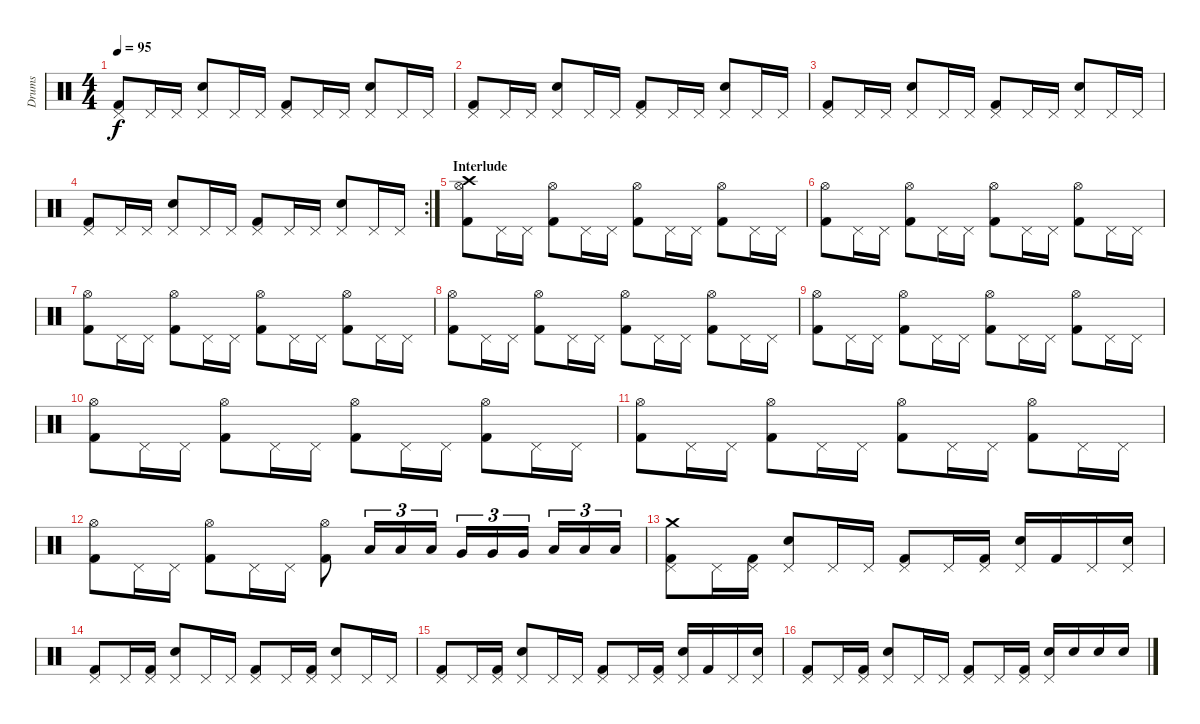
\track ("Drums" "Drums") {instrument percussion}
\staff {score}
\articulation defaults
\ts (4 4)
\tempo 95
\clef neutral
\ks c
("Pedal Hi-Hat (hit)" "Kick (hit) 2").8{dy f} "Pedal Hi-Hat (hit)".16 "Pedal Hi-Hat (hit)".16 ("Pedal Hi-Hat (hit)" "Snare (hit) 2").8 "Pedal Hi-Hat (hit)".16 "Pedal Hi-Hat (hit)".16 ("Pedal Hi-Hat (hit)" "Kick (hit) 2").8 "Pedal Hi-Hat (hit)".16 "Pedal Hi-Hat (hit)".16 ("Pedal Hi-Hat (hit)" "Snare (hit) 2").8 "Pedal Hi-Hat (hit)".16 "Pedal Hi-Hat (hit)".16 |
("Pedal Hi-Hat (hit)" "Kick (hit) 2").8 "Pedal Hi-Hat (hit)".16 "Pedal Hi-Hat (hit)".16 ("Pedal Hi-Hat (hit)" "Snare (hit) 2").8 "Pedal Hi-Hat (hit)".16 "Pedal Hi-Hat (hit)".16 ("Pedal Hi-Hat (hit)" "Kick (hit) 2").8 "Pedal Hi-Hat (hit)".16 "Pedal Hi-Hat (hit)".16 ("Pedal Hi-Hat (hit)" "Snare (hit) 2").8 "Pedal Hi-Hat (hit)".16 "Pedal Hi-Hat (hit)".16 |
("Pedal Hi-Hat (hit)" "Kick (hit) 2").8 "Pedal Hi-Hat (hit)".16 "Pedal Hi-Hat (hit)".16 ("Pedal Hi-Hat (hit)" "Snare (hit) 2").8 "Pedal Hi-Hat (hit)".16 "Pedal Hi-Hat (hit)".16 ("Pedal Hi-Hat (hit)" "Kick (hit) 2").8 "Pedal Hi-Hat (hit)".16 "Pedal Hi-Hat (hit)".16 ("Pedal Hi-Hat (hit)" "Snare (hit) 2").8 "Pedal Hi-Hat (hit)".16 "Pedal Hi-Hat (hit)".16 |
\rc 2
("Pedal Hi-Hat (hit)" "Kick (hit) 2").8 "Pedal Hi-Hat (hit)".16 "Pedal Hi-Hat (hit)".16 ("Pedal Hi-Hat (hit)" "Snare (hit) 2").8 "Pedal Hi-Hat (hit)".16 "Pedal Hi-Hat (hit)".16 ("Pedal Hi-Hat (hit)" "Kick (hit) 2").8 "Pedal Hi-Hat (hit)".16 "Pedal Hi-Hat (hit)".16 ("Pedal Hi-Hat (hit)" "Snare (hit) 2").8 "Pedal Hi-Hat (hit)".16 "Pedal Hi-Hat (hit)".16 |
\section ("" "Interlude")
("Crash high (hit)" "Hi-Hat (open)" "Kick (hit) 2").8 "Pedal Hi-Hat (hit)".16 "Pedal Hi-Hat (hit)".16 ("Hi-Hat (open)" "Kick (hit) 2").8 "Pedal Hi-Hat (hit)".16 "Pedal Hi-Hat (hit)".16 ("Hi-Hat (open)" "Kick (hit) 2").8 "Pedal Hi-Hat (hit)".16 "Pedal Hi-Hat (hit)".16 ("Hi-Hat (open)" "Kick (hit) 2").8 "Pedal Hi-Hat (hit)".16 "Pedal Hi-Hat (hit)".16 |
("Hi-Hat (open)" "Kick (hit) 2").8 "Pedal Hi-Hat (hit)".16 "Pedal Hi-Hat (hit)".16 ("Hi-Hat (open)" "Kick (hit) 2").8 "Pedal Hi-Hat (hit)".16 "Pedal Hi-Hat (hit)".16 ("Hi-Hat (open)" "Kick (hit) 2").8 "Pedal Hi-Hat (hit)".16 "Pedal Hi-Hat (hit)".16 ("Hi-Hat (open)" "Kick (hit) 2").8 "Pedal Hi-Hat (hit)".16 "Pedal Hi-Hat (hit)".16 |
("Hi-Hat (open)" "Kick (hit) 2").8 "Pedal Hi-Hat (hit)".16 "Pedal Hi-Hat (hit)".16 ("Hi-Hat (open)" "Kick (hit) 2").8 "Pedal Hi-Hat (hit)".16 "Pedal Hi-Hat (hit)".16 ("Hi-Hat (open)" "Kick (hit) 2").8 "Pedal Hi-Hat (hit)".16 "Pedal Hi-Hat (hit)".16 ("Hi-Hat (open)" "Kick (hit) 2").8 "Pedal Hi-Hat (hit)".16 "Pedal Hi-Hat (hit)".16 |
("Hi-Hat (open)" "Kick (hit) 2").8 "Pedal Hi-Hat (hit)".16 "Pedal Hi-Hat (hit)".16 ("Hi-Hat (open)" "Kick (hit) 2").8 "Pedal Hi-Hat (hit)".16 "Pedal Hi-Hat (hit)".16 ("Hi-Hat (open)" "Kick (hit) 2").8 "Pedal Hi-Hat (hit)".16 "Pedal Hi-Hat (hit)".16 ("Hi-Hat (open)" "Kick (hit) 2").8 "Pedal Hi-Hat (hit)".16 "Pedal Hi-Hat (hit)".16 |
("Hi-Hat (open)" "Kick (hit) 2").8 "Pedal Hi-Hat (hit)".16 "Pedal Hi-Hat (hit)".16 ("Hi-Hat (open)" "Kick (hit) 2").8 "Pedal Hi-Hat (hit)".16 "Pedal Hi-Hat (hit)".16 ("Hi-Hat (open)" "Kick (hit) 2").8 "Pedal Hi-Hat (hit)".16 "Pedal Hi-Hat (hit)".16 ("Hi-Hat (open)" "Kick (hit) 2").8 "Pedal Hi-Hat (hit)".16 "Pedal Hi-Hat (hit)".16 |
("Hi-Hat (open)" "Kick (hit) 2").8 "Pedal Hi-Hat (hit)".16 "Pedal Hi-Hat (hit)".16 ("Hi-Hat (open)" "Kick (hit) 2").8 "Pedal Hi-Hat (hit)".16 "Pedal Hi-Hat (hit)".16 ("Hi-Hat (open)" "Kick (hit) 2").8 "Pedal Hi-Hat (hit)".16 "Pedal Hi-Hat (hit)".16 ("Hi-Hat (open)" "Kick (hit) 2").8 "Pedal Hi-Hat (hit)".16 "Pedal Hi-Hat (hit)".16 |
("Hi-Hat (open)" "Kick (hit) 2").8 "Pedal Hi-Hat (hit)".16 "Pedal Hi-Hat (hit)".16 ("Hi-Hat (open)" "Kick (hit) 2").8 "Pedal Hi-Hat (hit)".16 "Pedal Hi-Hat (hit)".16 ("Hi-Hat (open)" "Kick (hit) 2").8 "Pedal Hi-Hat (hit)".16 "Pedal Hi-Hat (hit)".16 ("Hi-Hat (open)" "Kick (hit) 2").8 "Pedal Hi-Hat (hit)".16 "Pedal Hi-Hat (hit)".16 |
("Hi-Hat (open)" "Kick (hit) 2").8 "Pedal Hi-Hat (hit)".16 "Pedal Hi-Hat (hit)".16 ("Hi-Hat (open)" "Kick (hit) 2").8 "Pedal Hi-Hat (hit)".16 "Pedal Hi-Hat (hit)".16 ("Hi-Hat (open)" "Kick (hit) 2").8 "Low Tom (hit)".16{tu (3 2)} "Low Tom (hit)".16{tu (3 2)} "Low Tom (hit)".16{tu (3 2)} "Very Low Tom (hit)".16{tu (3 2)} "Very Low Tom (hit)".16{tu (3 2)} "Very Low Tom (hit)".16{tu (3 2)} "Low Floor Tom (hit)".16{tu (3 2)} "Low Floor Tom (hit)".16{tu (3 2)} "Low Floor Tom (hit)".16{tu (3 2)} |
("Crash medium (hit)" "Pedal Hi-Hat (hit)" "Kick (hit) 2").8 "Pedal Hi-Hat (hit)".16 ("Pedal Hi-Hat (hit)" "Kick (hit) 2").16 ("Pedal Hi-Hat (hit)" "Snare (hit) 2").8 "Pedal Hi-Hat (hit)".16 "Pedal Hi-Hat (hit)".16 ("Pedal Hi-Hat (hit)" "Kick (hit) 2").8 "Pedal Hi-Hat (hit)".16 ("Pedal Hi-Hat (hit)" "Kick (hit) 2").16 ("Pedal Hi-Hat (hit)" "Snare (hit) 2").16 "Kick (hit) 2".16 "Pedal Hi-Hat (hit)".16 ("Pedal Hi-Hat (hit)" "Snare (hit) 2").16 |
("Pedal Hi-Hat (hit)" "Kick (hit) 2").8 "Pedal Hi-Hat (hit)".16 ("Pedal Hi-Hat (hit)" "Kick (hit) 2").16 ("Pedal Hi-Hat (hit)" "Snare (hit) 2").8 "Pedal Hi-Hat (hit)".16 "Pedal Hi-Hat (hit)".16 ("Pedal Hi-Hat (hit)" "Kick (hit) 2").8 "Pedal Hi-Hat (hit)".16 ("Pedal Hi-Hat (hit)" "Kick (hit) 2").16 ("Pedal Hi-Hat (hit)" "Snare (hit) 2").8 "Pedal Hi-Hat (hit)".16 "Pedal Hi-Hat (hit)".16 |
("Pedal Hi-Hat (hit)" "Kick (hit) 2").8 "Pedal Hi-Hat (hit)".16 ("Pedal Hi-Hat (hit)" "Kick (hit) 2").16 ("Pedal Hi-Hat (hit)" "Snare (hit) 2").8 "Pedal Hi-Hat (hit)".16 "Pedal Hi-Hat (hit)".16 ("Pedal Hi-Hat (hit)" "Kick (hit) 2").8 "Pedal Hi-Hat (hit)".16 ("Pedal Hi-Hat (hit)" "Kick (hit) 2").16 ("Pedal Hi-Hat (hit)" "Snare (hit) 2").16 "Kick (hit) 2".16 "Pedal Hi-Hat (hit)".16 ("Pedal Hi-Hat (hit)" "Snare (hit) 2").16 |
("Pedal Hi-Hat (hit)" "Kick (hit) 2").8 "Pedal Hi-Hat (hit)".16 ("Pedal Hi-Hat (hit)" "Kick (hit) 2").16 ("Pedal Hi-Hat (hit)" "Snare (hit) 2").8 "Pedal Hi-Hat (hit)".16 "Pedal Hi-Hat (hit)".16 ("Pedal Hi-Hat (hit)" "Kick (hit) 2").8 "Pedal Hi-Hat (hit)".16 ("Pedal Hi-Hat (hit)" "Kick (hit) 2").16 ("Pedal Hi-Hat (hit)" "Snare (hit) 2").16 "Snare (hit) 2".16 "Snare (hit) 2".16 "Snare (hit) 2".16
